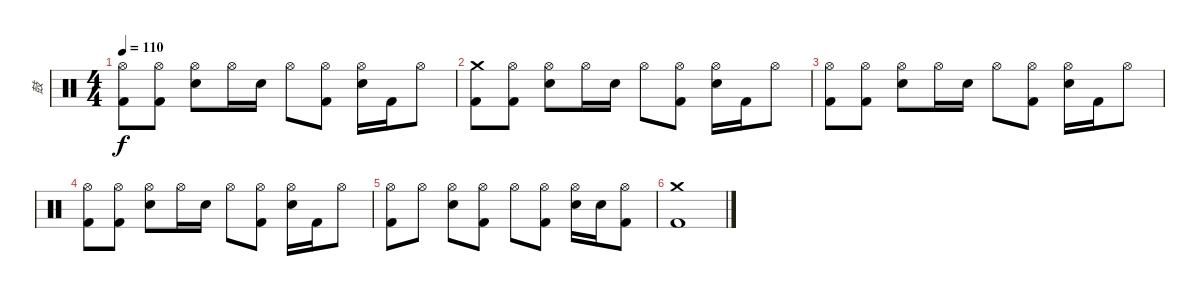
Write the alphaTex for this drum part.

\track ("鼓" "鼓") {instrument percussion}
\staff {score}
\articulation defaults
\ts (4 4)
\tempo 110
\clef neutral
\ks c
("Hi-Hat (open)" "Kick (hit) 2").8{dy f} ("Hi-Hat (open)" "Kick (hit) 2").8 ("Hi-Hat (open)" "Electric Snare (hit)").8 "Hi-Hat (open)".16 "Electric Snare (hit)".16 "Hi-Hat (open)".8 ("Hi-Hat (open)" "Kick (hit) 2").8 ("Hi-Hat (open)" "Electric Snare (hit)").16 "Kick (hit) 2".16 "Hi-Hat (open)".8 |
("Crash medium (hit)" "Kick (hit) 2").8 ("Hi-Hat (open)" "Kick (hit) 2").8 ("Hi-Hat (open)" "Electric Snare (hit)").8 "Hi-Hat (open)".16 "Electric Snare (hit)".16 "Hi-Hat (open)".8 ("Hi-Hat (open)" "Kick (hit) 2").8 ("Hi-Hat (open)" "Electric Snare (hit)").16 "Kick (hit) 2".16 "Hi-Hat (open)".8 |
("Hi-Hat (open)" "Kick (hit) 2").8 ("Hi-Hat (open)" "Kick (hit) 2").8 ("Hi-Hat (open)" "Electric Snare (hit)").8 "Hi-Hat (open)".16 "Electric Snare (hit)".16 "Hi-Hat (open)".8 ("Hi-Hat (open)" "Kick (hit) 2").8 ("Hi-Hat (open)" "Electric Snare (hit)").16 "Kick (hit) 2".16 "Hi-Hat (open)".8 |
("Hi-Hat (open)" "Kick (hit) 2").8 ("Hi-Hat (open)" "Kick (hit) 2").8 ("Hi-Hat (open)" "Electric Snare (hit)").8 "Hi-Hat (open)".16 "Electric Snare (hit)".16 "Hi-Hat (open)".8 ("Hi-Hat (open)" "Kick (hit) 2").8 ("Hi-Hat (open)" "Electric Snare (hit)").16 "Kick (hit) 2".16 "Hi-Hat (open)".8 |
("Hi-Hat (open)" "Kick (hit) 2").8 "Hi-Hat (open)".8 ("Hi-Hat (open)" "Electric Snare (hit)").8 ("Hi-Hat (open)" "Kick (hit) 2").8 "Hi-Hat (open)".8 ("Hi-Hat (open)" "Kick (hit) 2").8 ("Hi-Hat (open)" "Electric Snare (hit)").16 "Electric Snare (hit)".16 ("Hi-Hat (open)" "Kick (hit) 2").8 |
("Crash medium (hit)" "Kick (hit) 2").1
